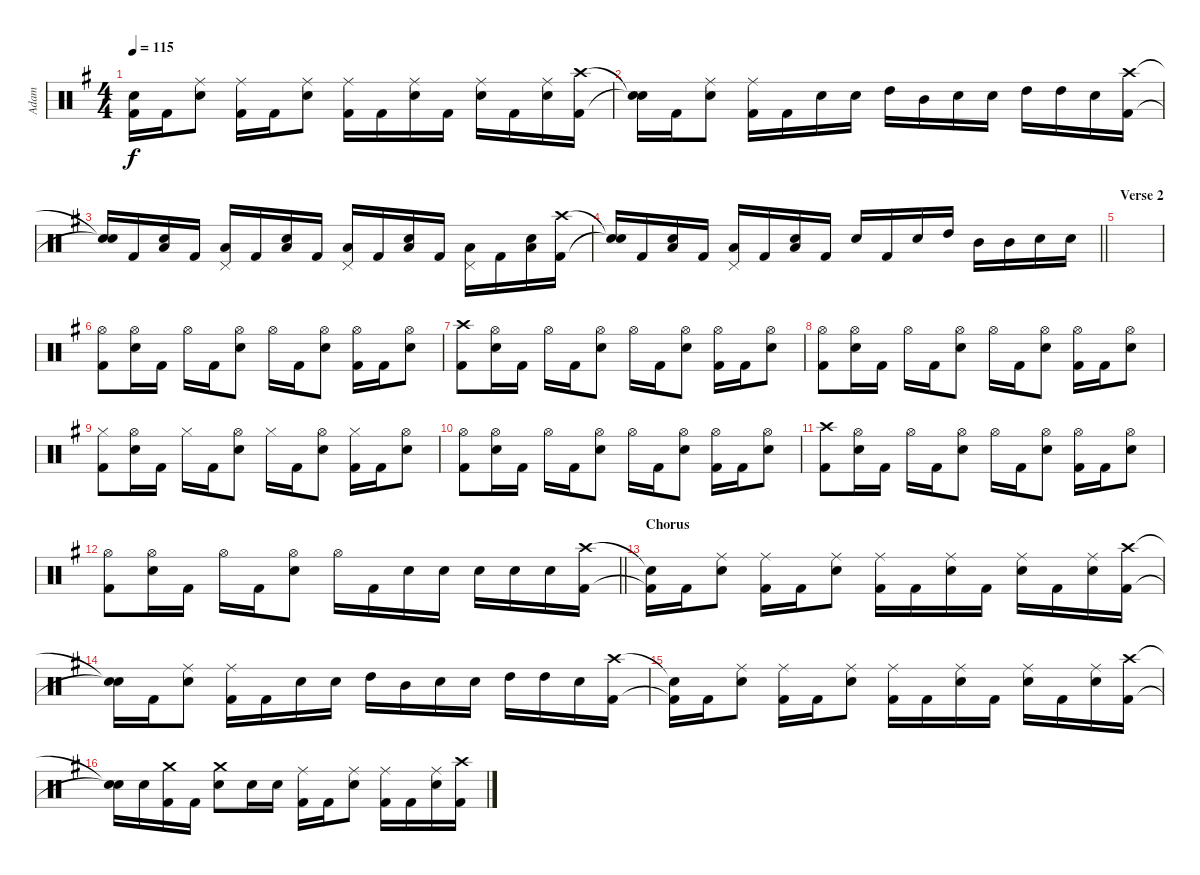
\track ("Adam" "Adam") {instrument percussion}
\staff {score}
\articulation defaults
\ts (4 4)
\tempo 115
\clef neutral
\ks g
("Snare (hit)"{t} "Kick (hit) 2"{t}).16{dy f} "Kick (hit) 2".16 ("Ride (middle)" "Snare (hit) 2").8 ("Ride (middle)" "Kick (hit) 2").16 "Kick (hit) 2".16 ("Ride (middle)" "Snare (hit) 2").8 ("Ride (middle)" "Kick (hit) 2").16 "Kick (hit) 2".16 ("Ride (middle)" "Snare (hit) 2").16 "Kick (hit) 2".16 ("Ride (middle)" "Snare (hit) 2").16 "Kick (hit) 2".16 ("Ride (middle)" "Snare (hit) 2").16 ("Crash high (hit)" "Kick (hit) 2").16 |
("Snare (hit)"{t} "Snare (hit)"{t}).16 "Kick (hit) 2".16 ("Ride (middle)" "Snare (hit) 2").8 ("Ride (middle)" "Kick (hit) 2").16 "Kick (hit) 2".16 "Snare (hit) 2".16 "Snare (hit) 2".16 "High Tom (hit)".16 "Mid Tom (hit)".16 "Snare (hit) 2".16 "Snare (hit) 2".16 "High Tom (hit)".16 "High Tom (hit)".16 "Snare (hit) 2".16 ("Crash high (hit)" "Kick (hit) 2").16 |
("Snare (hit)"{t} "Snare (hit)"{t}).16 "Kick (hit) 2".16 ("Snare (hit) 2" "Low Tom (hit)").16 "Kick (hit) 2".16 ("Low Tom (hit)" "Pedal Hi-Hat (hit)").16 "Kick (hit) 2".16 ("Snare (hit) 2" "Low Tom (hit)").16 "Kick (hit) 2".16 ("Low Tom (hit)" "Pedal Hi-Hat (hit)").16 "Kick (hit) 2".16 ("Snare (hit) 2" "Low Tom (hit)").16 "Kick (hit) 2".16 ("Low Tom (hit)" "Pedal Hi-Hat (hit)").16 "Kick (hit) 2".16 ("Snare (hit) 2" "Low Tom (hit)").16 ("Crash high (hit)" "Kick (hit) 2").16 |
\barLineRight lightlight
("Snare (hit)"{t} "Snare (hit)"{t}).16 "Kick (hit) 2".16 ("Snare (hit) 2" "Low Tom (hit)").16 "Kick (hit) 2".16 ("Low Tom (hit)" "Pedal Hi-Hat (hit)").16 "Kick (hit) 2".16 ("Snare (hit) 2" "Low Tom (hit)").16 "Kick (hit) 2".16 "Snare (hit) 2".16 "Kick (hit) 2".16 "Snare (hit) 2".16 "High Tom (hit)".16 "Mid Tom (hit)".16 "Mid Tom (hit)".16 "Snare (hit) 2".16 "Snare (hit) 2".16 |
\section ("" "Verse 2")
|
("Hi-Hat (open)" "Kick (hit) 2").8 ("Hi-Hat (open)" "Snare (hit) 2").16 "Kick (hit) 2".16 "Hi-Hat (open)".16 "Kick (hit) 2".16 ("Hi-Hat (open)" "Snare (hit) 2").8 "Hi-Hat (open)".16 "Kick (hit) 2".16 ("Hi-Hat (open)" "Snare (hit) 2").8 ("Hi-Hat (open)" "Kick (hit) 2").16 "Kick (hit) 2".16 ("Hi-Hat (open)" "Snare (hit) 2").8 |
("Crash high (hit)" "Kick (hit) 2").8 ("Hi-Hat (open)" "Snare (hit) 2").16 "Kick (hit) 2".16 "Hi-Hat (open)".16 "Kick (hit) 2".16 ("Hi-Hat (open)" "Snare (hit) 2").8 "Hi-Hat (open)".16 "Kick (hit) 2".16 ("Hi-Hat (open)" "Snare (hit) 2").8 ("Hi-Hat (open)" "Kick (hit) 2").16 "Kick (hit) 2".16 ("Hi-Hat (open)" "Snare (hit) 2").8 |
("Hi-Hat (open)" "Kick (hit) 2").8 ("Hi-Hat (open)" "Snare (hit) 2").16 "Kick (hit) 2".16 "Hi-Hat (open)".16 "Kick (hit) 2".16 ("Hi-Hat (open)" "Snare (hit) 2").8 "Hi-Hat (open)".16 "Kick (hit) 2".16 ("Hi-Hat (open)" "Snare (hit) 2").8 ("Hi-Hat (open)" "Kick (hit) 2").16 "Kick (hit) 2".16 ("Hi-Hat (open)" "Snare (hit) 2").8 |
("Hi-Hat (closed)" "Kick (hit) 2").8 ("Hi-Hat (open)" "Snare (hit) 2").16 "Kick (hit) 2".16 "Hi-Hat (closed)".16 "Kick (hit) 2".16 ("Hi-Hat (open)" "Snare (hit) 2").8 "Hi-Hat (closed)".16 "Kick (hit) 2".16 ("Hi-Hat (open)" "Snare (hit) 2").8 ("Hi-Hat (closed)" "Kick (hit) 2").16 "Kick (hit) 2".16 ("Hi-Hat (open)" "Snare (hit) 2").8 |
("Hi-Hat (open)" "Kick (hit) 2").8 ("Hi-Hat (open)" "Snare (hit) 2").16 "Kick (hit) 2".16 "Hi-Hat (open)".16 "Kick (hit) 2".16 ("Hi-Hat (open)" "Snare (hit) 2").8 "Hi-Hat (open)".16 "Kick (hit) 2".16 ("Hi-Hat (open)" "Snare (hit) 2").8 ("Hi-Hat (open)" "Kick (hit) 2").16 "Kick (hit) 2".16 ("Hi-Hat (open)" "Snare (hit) 2").8 |
("Crash high (hit)" "Kick (hit) 2").8 ("Hi-Hat (open)" "Snare (hit) 2").16 "Kick (hit) 2".16 "Hi-Hat (open)".16 "Kick (hit) 2".16 ("Hi-Hat (open)" "Snare (hit) 2").8 "Hi-Hat (open)".16 "Kick (hit) 2".16 ("Hi-Hat (open)" "Snare (hit) 2").8 ("Hi-Hat (open)" "Kick (hit) 2").16 "Kick (hit) 2".16 ("Hi-Hat (open)" "Snare (hit) 2").8 |
\barLineRight lightlight
("Hi-Hat (open)" "Kick (hit) 2").8 ("Hi-Hat (open)" "Snare (hit) 2").16 "Kick (hit) 2".16 "Hi-Hat (open)".16 "Kick (hit) 2".16 ("Hi-Hat (open)" "Snare (hit) 2").8 "Hi-Hat (open)".16 "Kick (hit) 2".16 "Snare (hit) 2".16 "Snare (hit) 2".16 "Snare (hit) 2".16 "Snare (hit) 2".16 "Snare (hit) 2".16 ("Crash high (hit)" "Kick (hit) 2").16 |
\section ("" "Chorus")
("Snare (hit)"{t} "Kick (hit) 2"{t}).16 "Kick (hit) 2".16 ("Ride (middle)" "Snare (hit) 2").8 ("Ride (middle)" "Kick (hit) 2").16 "Kick (hit) 2".16 ("Ride (middle)" "Snare (hit) 2").8 ("Ride (middle)" "Kick (hit) 2").16 "Kick (hit) 2".16 ("Ride (middle)" "Snare (hit) 2").16 "Kick (hit) 2".16 ("Ride (middle)" "Snare (hit) 2").16 "Kick (hit) 2".16 ("Ride (middle)" "Snare (hit) 2").16 ("Crash high (hit)" "Kick (hit) 2").16 |
("Snare (hit)"{t} "Snare (hit)"{t}).16 "Kick (hit) 2".16 ("Ride (middle)" "Snare (hit) 2").8 ("Ride (middle)" "Kick (hit) 2").16 "Kick (hit) 2".16 "Snare (hit) 2".16 "Snare (hit) 2".16 "High Tom (hit)".16 "Mid Tom (hit)".16 "Snare (hit) 2".16 "Snare (hit) 2".16 "High Tom (hit)".16 "High Tom (hit)".16 "Snare (hit) 2".16 ("Crash high (hit)" "Kick (hit) 2").16 |
("Snare (hit)"{t} "Kick (hit) 2"{t}).16 "Kick (hit) 2".16 ("Ride (middle)" "Snare (hit) 2").8 ("Ride (middle)" "Kick (hit) 2").16 "Kick (hit) 2".16 ("Ride (middle)" "Snare (hit) 2").8 ("Ride (middle)" "Kick (hit) 2").16 "Kick (hit) 2".16 ("Ride (middle)" "Snare (hit) 2").16 "Kick (hit) 2".16 ("Ride (middle)" "Snare (hit) 2").16 "Kick (hit) 2".16 ("Ride (middle)" "Snare (hit) 2").16 ("Crash high (hit)" "Kick (hit) 2").16 |
("Snare (hit)"{t} "Snare (hit)"{t}).16 "Snare (hit) 2".16 ("Crash medium (hit)" "Kick (hit) 2").16 "Kick (hit) 2".16 ("Crash medium (hit)" "Snare (hit) 2").8 "Snare (hit) 2".16 "Snare (hit) 2".16 ("Ride (middle)" "Kick (hit) 2").16 "Kick (hit) 2".16 ("Ride (middle)" "Snare (hit) 2").8 ("Ride (middle)" "Kick (hit) 2").16 "Kick (hit) 2".16 ("Ride (middle)" "Snare (hit) 2").16 ("Crash high (hit)" "Kick (hit) 2").16
